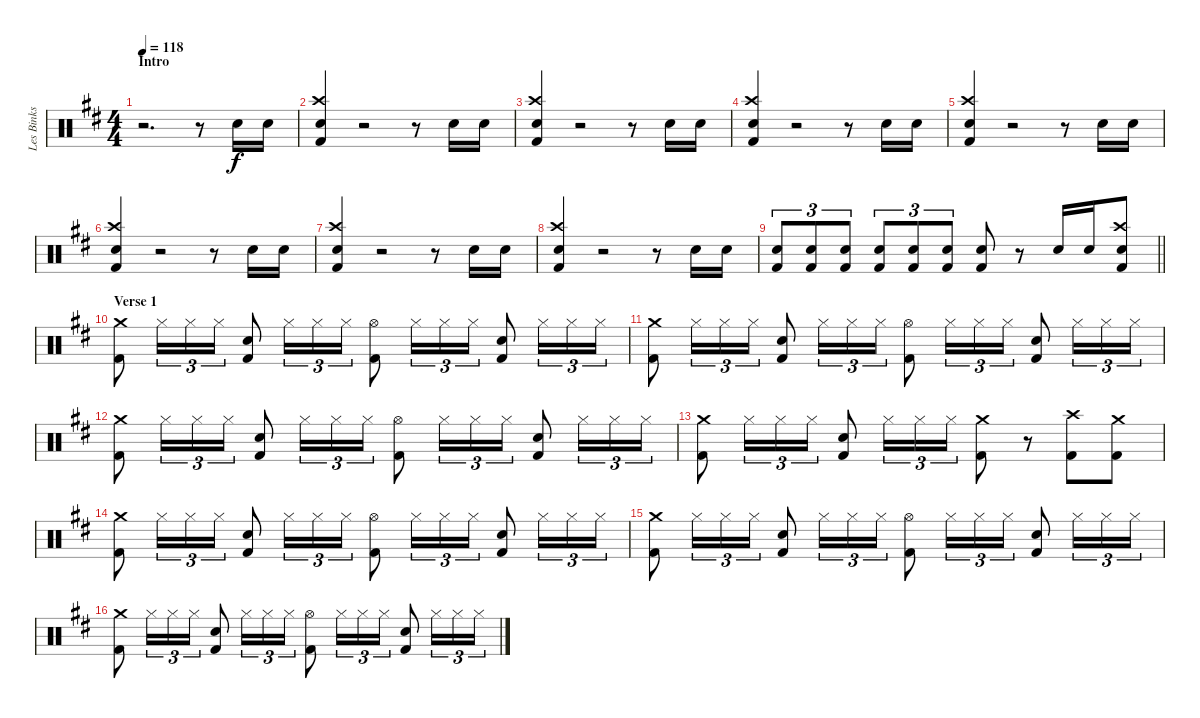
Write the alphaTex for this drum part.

\track ("Les Binks" "Les Binks") {instrument percussion}
\staff {score}
\articulation defaults
\ts (4 4)
\section ("" "Intro")
\tempo 118
\clef neutral
\ks d
r.2{d dy f} r.8 "Snare (hit) 2".16 "Snare (hit) 2".16 |
("Crash high (hit)" "Snare (hit) 2" "Kick (hit) 2").4 r.2 r.8 "Snare (hit) 2".16 "Snare (hit) 2".16 |
("Crash high (hit)" "Snare (hit) 2" "Kick (hit) 2").4 r.2 r.8 "Snare (hit) 2".16 "Snare (hit) 2".16 |
("Crash high (hit)" "Snare (hit) 2" "Kick (hit) 2").4 r.2 r.8 "Snare (hit) 2".16 "Snare (hit) 2".16 |
("Crash high (hit)" "Snare (hit) 2" "Kick (hit) 2").4 r.2 r.8 "Snare (hit) 2".16 "Snare (hit) 2".16 |
("Crash high (hit)" "Snare (hit) 2" "Kick (hit) 2").4 r.2 r.8 "Snare (hit) 2".16 "Snare (hit) 2".16 |
("Crash high (hit)" "Snare (hit) 2" "Kick (hit) 2").4 r.2 r.8 "Snare (hit) 2".16 "Snare (hit) 2".16 |
("Crash high (hit)" "Snare (hit) 2" "Kick (hit) 2").4 r.2 r.8 "Snare (hit) 2".16 "Snare (hit) 2".16 |
\barLineRight lightlight
("Snare (hit) 2" "Kick (hit) 2").8{tu (3 2)} ("Snare (hit) 2" "Kick (hit) 2").8{tu (3 2)} ("Snare (hit) 2" "Kick (hit) 2").8{tu (3 2)} ("Snare (hit) 2" "Kick (hit) 2").8{tu (3 2)} ("Snare (hit) 2" "Kick (hit) 2").8{tu (3 2)} ("Snare (hit) 2" "Kick (hit) 2").8{tu (3 2)} ("Snare (hit) 2" "Kick (hit) 2").8 r.8 "Snare (hit) 2".16 "Snare (hit) 2".16 ("Crash high (hit)" "Snare (hit) 2" "Kick (hit) 2").8 |
\section ("" "Verse 1")
("Crash medium (hit)" "Kick (hit) 2").8 "Hi-Hat (closed)".16{tu (3 2)} "Hi-Hat (closed)".16{tu (3 2)} "Hi-Hat (closed)".16{tu (3 2)} ("Snare (hit) 2" "Kick (hit) 2").8 "Hi-Hat (closed)".16{tu (3 2)} "Hi-Hat (closed)".16{tu (3 2)} "Hi-Hat (closed)".16{tu (3 2)} ("Hi-Hat (open)" "Kick (hit) 2").8 "Hi-Hat (closed)".16{tu (3 2)} "Hi-Hat (closed)".16{tu (3 2)} "Hi-Hat (closed)".16{tu (3 2)} ("Snare (hit) 2" "Kick (hit) 2").8 "Hi-Hat (closed)".16{tu (3 2)} "Hi-Hat (closed)".16{tu (3 2)} "Hi-Hat (closed)".16{tu (3 2)} |
("Crash medium (hit)" "Kick (hit) 2").8 "Hi-Hat (closed)".16{tu (3 2)} "Hi-Hat (closed)".16{tu (3 2)} "Hi-Hat (closed)".16{tu (3 2)} ("Snare (hit) 2" "Kick (hit) 2").8 "Hi-Hat (closed)".16{tu (3 2)} "Hi-Hat (closed)".16{tu (3 2)} "Hi-Hat (closed)".16{tu (3 2)} ("Hi-Hat (open)" "Kick (hit) 2").8 "Hi-Hat (closed)".16{tu (3 2)} "Hi-Hat (closed)".16{tu (3 2)} "Hi-Hat (closed)".16{tu (3 2)} ("Snare (hit) 2" "Kick (hit) 2").8 "Hi-Hat (closed)".16{tu (3 2)} "Hi-Hat (closed)".16{tu (3 2)} "Hi-Hat (closed)".16{tu (3 2)} |
("Crash medium (hit)" "Kick (hit) 2").8 "Hi-Hat (closed)".16{tu (3 2)} "Hi-Hat (closed)".16{tu (3 2)} "Hi-Hat (closed)".16{tu (3 2)} ("Snare (hit) 2" "Kick (hit) 2").8 "Hi-Hat (closed)".16{tu (3 2)} "Hi-Hat (closed)".16{tu (3 2)} "Hi-Hat (closed)".16{tu (3 2)} ("Hi-Hat (open)" "Kick (hit) 2").8 "Hi-Hat (closed)".16{tu (3 2)} "Hi-Hat (closed)".16{tu (3 2)} "Hi-Hat (closed)".16{tu (3 2)} ("Snare (hit) 2" "Kick (hit) 2").8 "Hi-Hat (closed)".16{tu (3 2)} "Hi-Hat (closed)".16{tu (3 2)} "Hi-Hat (closed)".16{tu (3 2)} |
("Crash medium (hit)" "Kick (hit) 2").8 "Hi-Hat (closed)".16{tu (3 2)} "Hi-Hat (closed)".16{tu (3 2)} "Hi-Hat (closed)".16{tu (3 2)} ("Snare (hit) 2" "Kick (hit) 2").8 "Hi-Hat (closed)".16{tu (3 2)} "Hi-Hat (closed)".16{tu (3 2)} "Hi-Hat (closed)".16{tu (3 2)} ("Crash medium (hit)" "Kick (hit) 2").8 r.8 ("Crash high (hit)" "Kick (hit) 2").8 ("Crash medium (hit)" "Kick (hit) 2").8 |
("Crash medium (hit)" "Kick (hit) 2").8 "Hi-Hat (closed)".16{tu (3 2)} "Hi-Hat (closed)".16{tu (3 2)} "Hi-Hat (closed)".16{tu (3 2)} ("Snare (hit) 2" "Kick (hit) 2").8 "Hi-Hat (closed)".16{tu (3 2)} "Hi-Hat (closed)".16{tu (3 2)} "Hi-Hat (closed)".16{tu (3 2)} ("Hi-Hat (open)" "Kick (hit) 2").8 "Hi-Hat (closed)".16{tu (3 2)} "Hi-Hat (closed)".16{tu (3 2)} "Hi-Hat (closed)".16{tu (3 2)} ("Snare (hit) 2" "Kick (hit) 2").8 "Hi-Hat (closed)".16{tu (3 2)} "Hi-Hat (closed)".16{tu (3 2)} "Hi-Hat (closed)".16{tu (3 2)} |
("Crash medium (hit)" "Kick (hit) 2").8 "Hi-Hat (closed)".16{tu (3 2)} "Hi-Hat (closed)".16{tu (3 2)} "Hi-Hat (closed)".16{tu (3 2)} ("Snare (hit) 2" "Kick (hit) 2").8 "Hi-Hat (closed)".16{tu (3 2)} "Hi-Hat (closed)".16{tu (3 2)} "Hi-Hat (closed)".16{tu (3 2)} ("Hi-Hat (open)" "Kick (hit) 2").8 "Hi-Hat (closed)".16{tu (3 2)} "Hi-Hat (closed)".16{tu (3 2)} "Hi-Hat (closed)".16{tu (3 2)} ("Snare (hit) 2" "Kick (hit) 2").8 "Hi-Hat (closed)".16{tu (3 2)} "Hi-Hat (closed)".16{tu (3 2)} "Hi-Hat (closed)".16{tu (3 2)} |
("Crash medium (hit)" "Kick (hit) 2").8 "Hi-Hat (closed)".16{tu (3 2)} "Hi-Hat (closed)".16{tu (3 2)} "Hi-Hat (closed)".16{tu (3 2)} ("Snare (hit) 2" "Kick (hit) 2").8 "Hi-Hat (closed)".16{tu (3 2)} "Hi-Hat (closed)".16{tu (3 2)} "Hi-Hat (closed)".16{tu (3 2)} ("Hi-Hat (open)" "Kick (hit) 2").8 "Hi-Hat (closed)".16{tu (3 2)} "Hi-Hat (closed)".16{tu (3 2)} "Hi-Hat (closed)".16{tu (3 2)} ("Snare (hit) 2" "Kick (hit) 2").8 "Hi-Hat (closed)".16{tu (3 2)} "Hi-Hat (closed)".16{tu (3 2)} "Hi-Hat (closed)".16{tu (3 2)}
